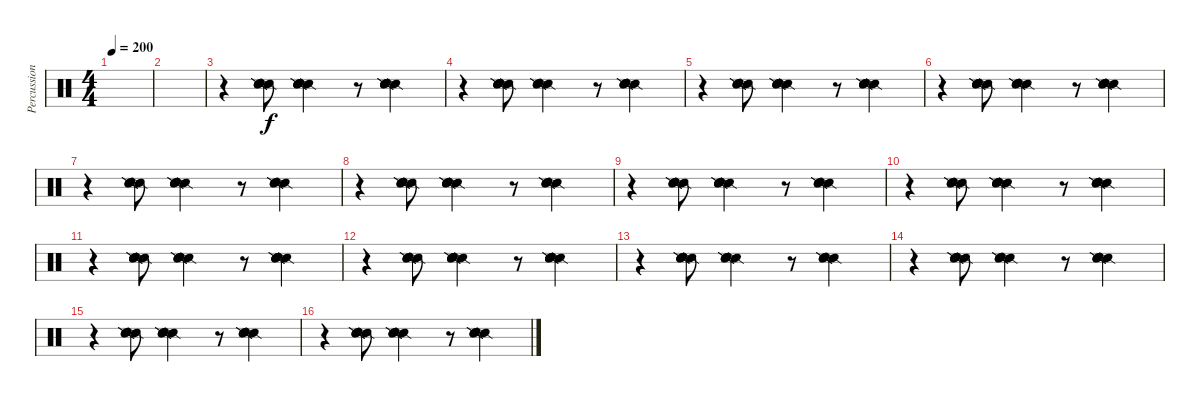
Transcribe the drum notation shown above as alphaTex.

\track ("Percussions" "Percussion") {instrument percussion}
\staff {score}
\articulation defaults
\ts (4 4)
\tempo 200
\clef neutral
\ks c
|
|
r.4 ("Snare (side stick) 2" "Snare (side stick) 2" "Snare (side stick) 2" "Hand Clap (hit)" "Hand Clap (hit)" "Hand Clap (hit)").8 ("Snare (side stick) 2" "Snare (side stick) 2" "Snare (side stick) 2" "Hand Clap (hit)" "Hand Clap (hit)" "Hand Clap (hit)").4 r.8 ("Snare (side stick) 2" "Snare (side stick) 2" "Snare (side stick) 2" "Hand Clap (hit)" "Hand Clap (hit)" "Hand Clap (hit)").4 |
r.4 ("Snare (side stick) 2" "Snare (side stick) 2" "Snare (side stick) 2" "Hand Clap (hit)" "Hand Clap (hit)" "Hand Clap (hit)").8 ("Snare (side stick) 2" "Snare (side stick) 2" "Snare (side stick) 2" "Hand Clap (hit)" "Hand Clap (hit)" "Hand Clap (hit)").4 r.8 ("Snare (side stick) 2" "Snare (side stick) 2" "Snare (side stick) 2" "Hand Clap (hit)" "Hand Clap (hit)" "Hand Clap (hit)").4 |
r.4 ("Snare (side stick) 2" "Snare (side stick) 2" "Snare (side stick) 2" "Hand Clap (hit)" "Hand Clap (hit)" "Hand Clap (hit)").8 ("Snare (side stick) 2" "Snare (side stick) 2" "Snare (side stick) 2" "Hand Clap (hit)" "Hand Clap (hit)" "Hand Clap (hit)").4 r.8 ("Snare (side stick) 2" "Snare (side stick) 2" "Snare (side stick) 2" "Hand Clap (hit)" "Hand Clap (hit)" "Hand Clap (hit)").4 |
r.4 ("Snare (side stick) 2" "Snare (side stick) 2" "Snare (side stick) 2" "Hand Clap (hit)" "Hand Clap (hit)" "Hand Clap (hit)").8 ("Snare (side stick) 2" "Snare (side stick) 2" "Snare (side stick) 2" "Hand Clap (hit)" "Hand Clap (hit)" "Hand Clap (hit)").4 r.8 ("Snare (side stick) 2" "Snare (side stick) 2" "Snare (side stick) 2" "Hand Clap (hit)" "Hand Clap (hit)" "Hand Clap (hit)").4 |
r.4 ("Snare (side stick) 2" "Snare (side stick) 2" "Snare (side stick) 2" "Hand Clap (hit)" "Hand Clap (hit)" "Hand Clap (hit)").8 ("Snare (side stick) 2" "Snare (side stick) 2" "Snare (side stick) 2" "Hand Clap (hit)" "Hand Clap (hit)" "Hand Clap (hit)").4 r.8 ("Snare (side stick) 2" "Snare (side stick) 2" "Snare (side stick) 2" "Hand Clap (hit)" "Hand Clap (hit)" "Hand Clap (hit)").4 |
r.4 ("Snare (side stick) 2" "Snare (side stick) 2" "Snare (side stick) 2" "Hand Clap (hit)" "Hand Clap (hit)" "Hand Clap (hit)").8 ("Snare (side stick) 2" "Snare (side stick) 2" "Snare (side stick) 2" "Hand Clap (hit)" "Hand Clap (hit)" "Hand Clap (hit)").4 r.8 ("Snare (side stick) 2" "Snare (side stick) 2" "Snare (side stick) 2" "Hand Clap (hit)" "Hand Clap (hit)" "Hand Clap (hit)").4 |
r.4 ("Snare (side stick) 2" "Snare (side stick) 2" "Snare (side stick) 2" "Hand Clap (hit)" "Hand Clap (hit)" "Hand Clap (hit)").8 ("Snare (side stick) 2" "Snare (side stick) 2" "Snare (side stick) 2" "Hand Clap (hit)" "Hand Clap (hit)" "Hand Clap (hit)").4 r.8 ("Snare (side stick) 2" "Snare (side stick) 2" "Snare (side stick) 2" "Hand Clap (hit)" "Hand Clap (hit)" "Hand Clap (hit)").4 |
r.4 ("Snare (side stick) 2" "Snare (side stick) 2" "Snare (side stick) 2" "Hand Clap (hit)" "Hand Clap (hit)" "Hand Clap (hit)").8 ("Snare (side stick) 2" "Snare (side stick) 2" "Snare (side stick) 2" "Hand Clap (hit)" "Hand Clap (hit)" "Hand Clap (hit)").4 r.8 ("Snare (side stick) 2" "Snare (side stick) 2" "Snare (side stick) 2" "Hand Clap (hit)" "Hand Clap (hit)" "Hand Clap (hit)").4 |
r.4 ("Snare (side stick) 2" "Snare (side stick) 2" "Snare (side stick) 2" "Hand Clap (hit)" "Hand Clap (hit)" "Hand Clap (hit)").8 ("Snare (side stick) 2" "Snare (side stick) 2" "Snare (side stick) 2" "Hand Clap (hit)" "Hand Clap (hit)" "Hand Clap (hit)").4 r.8 ("Snare (side stick) 2" "Snare (side stick) 2" "Snare (side stick) 2" "Hand Clap (hit)" "Hand Clap (hit)" "Hand Clap (hit)").4 |
r.4 ("Snare (side stick) 2" "Snare (side stick) 2" "Snare (side stick) 2" "Hand Clap (hit)" "Hand Clap (hit)" "Hand Clap (hit)").8 ("Snare (side stick) 2" "Snare (side stick) 2" "Snare (side stick) 2" "Hand Clap (hit)" "Hand Clap (hit)" "Hand Clap (hit)").4 r.8 ("Snare (side stick) 2" "Snare (side stick) 2" "Snare (side stick) 2" "Hand Clap (hit)" "Hand Clap (hit)" "Hand Clap (hit)").4 |
r.4 ("Snare (side stick) 2" "Snare (side stick) 2" "Snare (side stick) 2" "Hand Clap (hit)" "Hand Clap (hit)" "Hand Clap (hit)").8 ("Snare (side stick) 2" "Snare (side stick) 2" "Snare (side stick) 2" "Hand Clap (hit)" "Hand Clap (hit)" "Hand Clap (hit)").4 r.8 ("Snare (side stick) 2" "Snare (side stick) 2" "Snare (side stick) 2" "Hand Clap (hit)" "Hand Clap (hit)" "Hand Clap (hit)").4 |
r.4 ("Snare (side stick) 2" "Snare (side stick) 2" "Snare (side stick) 2" "Hand Clap (hit)" "Hand Clap (hit)" "Hand Clap (hit)").8 ("Snare (side stick) 2" "Snare (side stick) 2" "Snare (side stick) 2" "Hand Clap (hit)" "Hand Clap (hit)" "Hand Clap (hit)").4 r.8 ("Snare (side stick) 2" "Snare (side stick) 2" "Snare (side stick) 2" "Hand Clap (hit)" "Hand Clap (hit)" "Hand Clap (hit)").4 |
r.4 ("Snare (side stick) 2" "Snare (side stick) 2" "Snare (side stick) 2" "Hand Clap (hit)" "Hand Clap (hit)" "Hand Clap (hit)").8 ("Snare (side stick) 2" "Snare (side stick) 2" "Snare (side stick) 2" "Hand Clap (hit)" "Hand Clap (hit)" "Hand Clap (hit)").4 r.8 ("Snare (side stick) 2" "Snare (side stick) 2" "Snare (side stick) 2" "Hand Clap (hit)" "Hand Clap (hit)" "Hand Clap (hit)").4 |
r.4 ("Snare (side stick) 2" "Snare (side stick) 2" "Snare (side stick) 2" "Hand Clap (hit)" "Hand Clap (hit)" "Hand Clap (hit)").8 ("Snare (side stick) 2" "Snare (side stick) 2" "Snare (side stick) 2" "Hand Clap (hit)" "Hand Clap (hit)" "Hand Clap (hit)").4 r.8 ("Snare (side stick) 2" "Snare (side stick) 2" "Snare (side stick) 2" "Hand Clap (hit)" "Hand Clap (hit)" "Hand Clap (hit)").4
